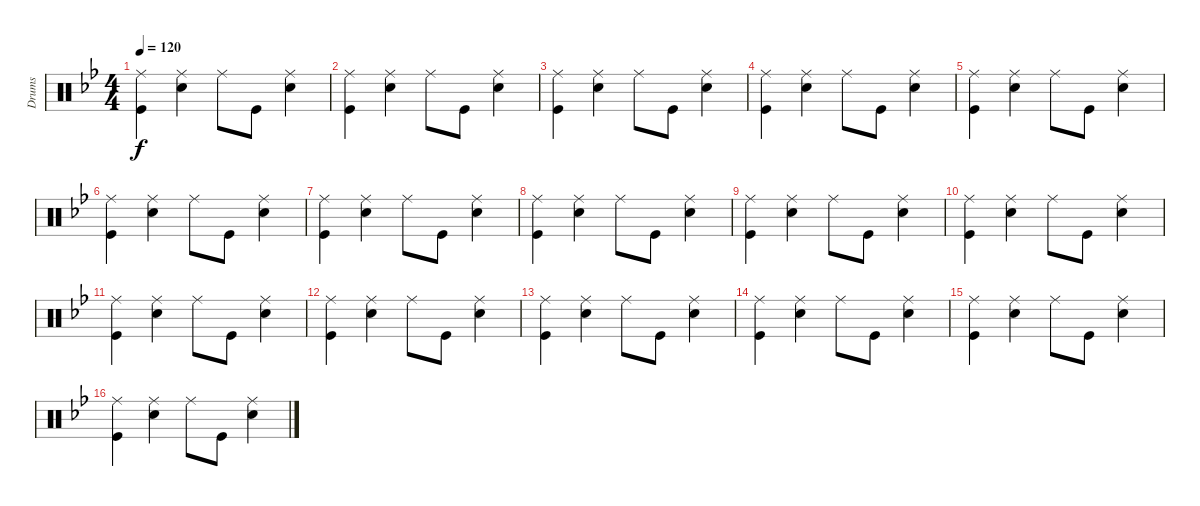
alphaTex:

\track ("Drums" "Drums") {instrument percussion}
\staff {score}
\articulation defaults
\ts (4 4)
\tempo 120
\clef neutral
\ks bb
("Ride (middle)" "Kick (hit)").4{dy f} ("Ride (middle)" "Snare (hit) 2").4 "Ride (middle)".8 "Kick (hit)".8 ("Ride (middle)" "Snare (hit) 2").4 |
("Ride (middle)" "Kick (hit)").4 ("Ride (middle)" "Snare (hit) 2").4 "Ride (middle)".8 "Kick (hit)".8 ("Ride (middle)" "Snare (hit) 2").4 |
("Ride (middle)" "Kick (hit)").4 ("Ride (middle)" "Snare (hit) 2").4 "Ride (middle)".8 "Kick (hit)".8 ("Ride (middle)" "Snare (hit) 2").4 |
("Ride (middle)" "Kick (hit)").4 ("Ride (middle)" "Snare (hit) 2").4 "Ride (middle)".8 "Kick (hit)".8 ("Ride (middle)" "Snare (hit) 2").4 |
("Ride (middle)" "Kick (hit)").4 ("Ride (middle)" "Snare (hit) 2").4 "Ride (middle)".8 "Kick (hit)".8 ("Ride (middle)" "Snare (hit) 2").4 |
("Ride (middle)" "Kick (hit)").4 ("Ride (middle)" "Snare (hit) 2").4 "Ride (middle)".8 "Kick (hit)".8 ("Ride (middle)" "Snare (hit) 2").4 |
("Ride (middle)" "Kick (hit)").4 ("Ride (middle)" "Snare (hit) 2").4 "Ride (middle)".8 "Kick (hit)".8 ("Ride (middle)" "Snare (hit) 2").4 |
("Ride (middle)" "Kick (hit)").4 ("Ride (middle)" "Snare (hit) 2").4 "Ride (middle)".8 "Kick (hit)".8 ("Ride (middle)" "Snare (hit) 2").4 |
("Ride (middle)" "Kick (hit)").4 ("Ride (middle)" "Snare (hit) 2").4 "Ride (middle)".8 "Kick (hit)".8 ("Ride (middle)" "Snare (hit) 2").4 |
("Ride (middle)" "Kick (hit)").4 ("Ride (middle)" "Snare (hit) 2").4 "Ride (middle)".8 "Kick (hit)".8 ("Ride (middle)" "Snare (hit) 2").4 |
("Ride (middle)" "Kick (hit)").4 ("Ride (middle)" "Snare (hit) 2").4 "Ride (middle)".8 "Kick (hit)".8 ("Ride (middle)" "Snare (hit) 2").4 |
("Ride (middle)" "Kick (hit)").4 ("Ride (middle)" "Snare (hit) 2").4 "Ride (middle)".8 "Kick (hit)".8 ("Ride (middle)" "Snare (hit) 2").4 |
("Ride (middle)" "Kick (hit)").4 ("Ride (middle)" "Snare (hit) 2").4 "Ride (middle)".8 "Kick (hit)".8 ("Ride (middle)" "Snare (hit) 2").4 |
("Ride (middle)" "Kick (hit)").4 ("Ride (middle)" "Snare (hit) 2").4 "Ride (middle)".8 "Kick (hit)".8 ("Ride (middle)" "Snare (hit) 2").4 |
("Ride (middle)" "Kick (hit)").4 ("Ride (middle)" "Snare (hit) 2").4 "Ride (middle)".8 "Kick (hit)".8 ("Ride (middle)" "Snare (hit) 2").4 |
("Ride (middle)" "Kick (hit)").4 ("Ride (middle)" "Snare (hit) 2").4 "Ride (middle)".8 "Kick (hit)".8 ("Ride (middle)" "Snare (hit) 2").4
